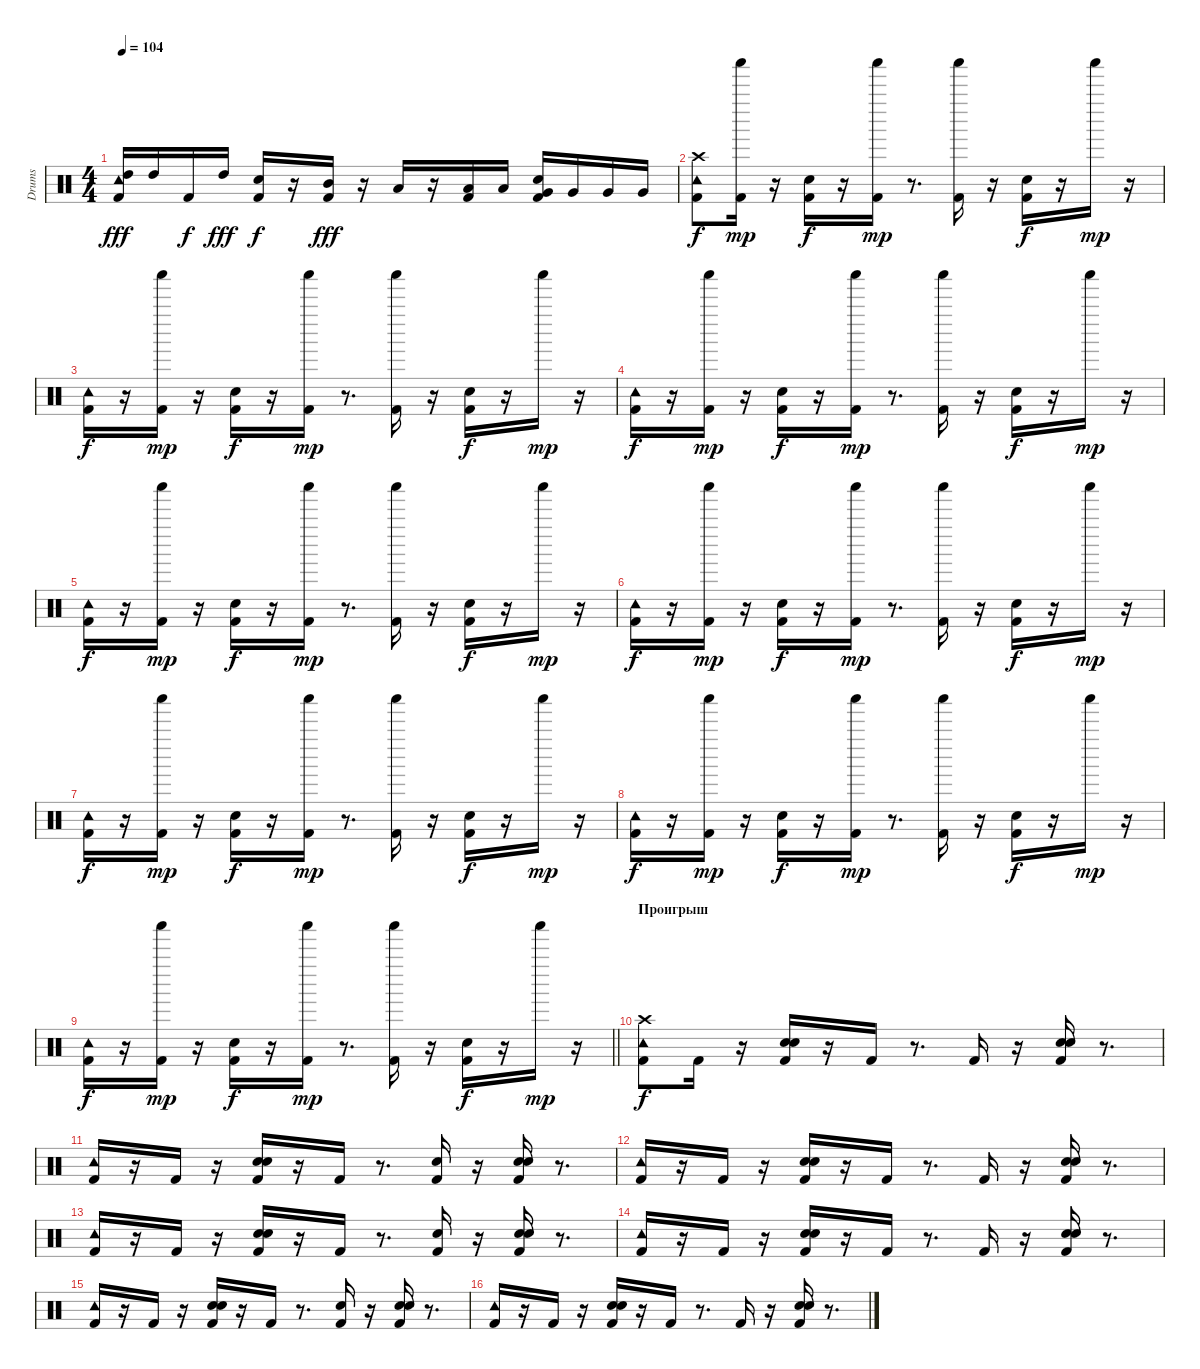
\track ("Drums" "Drums") {instrument percussion}
\staff {score}
\articulation defaults
\ts (4 4)
\tempo 104
\clef neutral
\ks c
("High Tom (hit)" "Tambourine (hit)" "Kick (hit) 2").16{dy fff} "High Tom (hit)".16 "Kick (hit) 2".16{dy f} "High Tom (hit)".16{dy fff} ("Kick (hit) 2" "Snare (hit) 2").16{dy f} r.16 ("Mid Tom (hit)" "Kick (hit) 2").16{dy fff} r.16 "Low Tom (hit)".16 r.16 ("Kick (hit) 2" "Low Tom (hit)").16 "Low Tom (hit)".16 ("Snare (hit) 2" "Kick (hit) 2" "Very Low Tom (hit)").16 "Very Low Tom (hit)".16 "Very Low Tom (hit)".16 "Very Low Tom (hit)".16 |
("Crash high (hit)" "Tambourine (hit)" "Kick (hit) 2").8{dy f} ("Shaker (hit)" "Kick (hit) 2").16{dy mp} r.16 ("Kick (hit) 2" "Snare (hit) 2").16{dy f} r.16 ("Shaker (hit)" "Kick (hit) 2").16{dy mp} r.8{d} ("Shaker (hit)" "Kick (hit) 2").16 r.16 ("Snare (hit) 2" "Kick (hit) 2").16{dy f} r.16 "Shaker (hit)".16{dy mp} r.16 |
("Tambourine (hit)" "Kick (hit) 2").16{dy f} r.16 ("Kick (hit) 2" "Shaker (hit)").16{dy mp} r.16 ("Kick (hit) 2" "Snare (hit) 2").16{dy f} r.16 ("Kick (hit) 2" "Shaker (hit)").16{dy mp} r.8{d} ("Kick (hit) 2" "Shaker (hit)").16 r.16 ("Snare (hit) 2" "Kick (hit) 2").16{dy f} r.16 "Shaker (hit)".16{dy mp} r.16 |
("Tambourine (hit)" "Kick (hit) 2").16{dy f} r.16 ("Kick (hit) 2" "Shaker (hit)").16{dy mp} r.16 ("Kick (hit) 2" "Snare (hit) 2").16{dy f} r.16 ("Kick (hit) 2" "Shaker (hit)").16{dy mp} r.8{d} ("Kick (hit) 2" "Shaker (hit)").16 r.16 ("Snare (hit) 2" "Kick (hit) 2").16{dy f} r.16 "Shaker (hit)".16{dy mp} r.16 |
("Tambourine (hit)" "Kick (hit) 2").16{dy f} r.16 ("Kick (hit) 2" "Shaker (hit)").16{dy mp} r.16 ("Kick (hit) 2" "Snare (hit) 2").16{dy f} r.16 ("Kick (hit) 2" "Shaker (hit)").16{dy mp} r.8{d} ("Kick (hit) 2" "Shaker (hit)").16 r.16 ("Snare (hit) 2" "Kick (hit) 2").16{dy f} r.16 "Shaker (hit)".16{dy mp} r.16 |
("Tambourine (hit)" "Kick (hit) 2").16{dy f} r.16 ("Kick (hit) 2" "Shaker (hit)").16{dy mp} r.16 ("Kick (hit) 2" "Snare (hit) 2").16{dy f} r.16 ("Kick (hit) 2" "Shaker (hit)").16{dy mp} r.8{d} ("Kick (hit) 2" "Shaker (hit)").16 r.16 ("Snare (hit) 2" "Kick (hit) 2").16{dy f} r.16 "Shaker (hit)".16{dy mp} r.16 |
("Tambourine (hit)" "Kick (hit) 2").16{dy f} r.16 ("Kick (hit) 2" "Shaker (hit)").16{dy mp} r.16 ("Kick (hit) 2" "Snare (hit) 2").16{dy f} r.16 ("Kick (hit) 2" "Shaker (hit)").16{dy mp} r.8{d} ("Kick (hit) 2" "Shaker (hit)").16 r.16 ("Snare (hit) 2" "Kick (hit) 2").16{dy f} r.16 "Shaker (hit)".16{dy mp} r.16 |
("Tambourine (hit)" "Kick (hit) 2").16{dy f} r.16 ("Kick (hit) 2" "Shaker (hit)").16{dy mp} r.16 ("Kick (hit) 2" "Snare (hit) 2").16{dy f} r.16 ("Kick (hit) 2" "Shaker (hit)").16{dy mp} r.8{d} ("Kick (hit) 2" "Shaker (hit)").16 r.16 ("Snare (hit) 2" "Kick (hit) 2").16{dy f} r.16 "Shaker (hit)".16{dy mp} r.16 |
\barLineRight lightlight
("Tambourine (hit)" "Kick (hit) 2").16{dy f} r.16 ("Kick (hit) 2" "Shaker (hit)").16{dy mp} r.16 ("Kick (hit) 2" "Snare (hit) 2").16{dy f} r.16 ("Kick (hit) 2" "Shaker (hit)").16{dy mp} r.8{d} ("Shaker (hit)" "Kick (hit) 2").16 r.16 ("Snare (hit) 2" "Kick (hit) 2").16{dy f} r.16 "Shaker (hit)".16{dy mp} r.16 |
\section ("" "Проигрыш")
("Crash high (hit)" "Tambourine (hit)" "Kick (hit) 2").8{dy f} "Kick (hit) 2".16 r.16 ("Hand Clap (hit)" "Kick (hit) 2" "Snare (hit) 2").16 r.16 "Kick (hit) 2".16 r.8{d} "Kick (hit) 2".16 r.16 ("Hand Clap (hit)" "Snare (hit) 2" "Kick (hit) 2").16 r.8{d} |
("Tambourine (hit)" "Kick (hit) 2").16 r.16 "Kick (hit) 2".16 r.16 ("Hand Clap (hit)" "Kick (hit) 2" "Snare (hit) 2").16 r.16 "Kick (hit) 2".16 r.8{d} ("Hand Clap (hit)" "Kick (hit) 2").16 r.16 ("Hand Clap (hit)" "Snare (hit) 2" "Kick (hit) 2").16 r.8{d} |
("Tambourine (hit)" "Kick (hit) 2").16 r.16 "Kick (hit) 2".16 r.16 ("Hand Clap (hit)" "Kick (hit) 2" "Snare (hit) 2").16 r.16 "Kick (hit) 2".16 r.8{d} "Kick (hit) 2".16 r.16 ("Hand Clap (hit)" "Snare (hit) 2" "Kick (hit) 2").16 r.8{d} |
("Tambourine (hit)" "Kick (hit) 2").16 r.16 "Kick (hit) 2".16 r.16 ("Hand Clap (hit)" "Kick (hit) 2" "Snare (hit) 2").16 r.16 "Kick (hit) 2".16 r.8{d} ("Hand Clap (hit)" "Kick (hit) 2").16 r.16 ("Hand Clap (hit)" "Snare (hit) 2" "Kick (hit) 2").16 r.8{d} |
("Tambourine (hit)" "Kick (hit) 2").16 r.16 "Kick (hit) 2".16 r.16 ("Hand Clap (hit)" "Kick (hit) 2" "Snare (hit) 2").16 r.16 "Kick (hit) 2".16 r.8{d} "Kick (hit) 2".16 r.16 ("Hand Clap (hit)" "Snare (hit) 2" "Kick (hit) 2").16 r.8{d} |
("Tambourine (hit)" "Kick (hit) 2").16 r.16 "Kick (hit) 2".16 r.16 ("Hand Clap (hit)" "Kick (hit) 2" "Snare (hit) 2").16 r.16 "Kick (hit) 2".16 r.8{d} ("Hand Clap (hit)" "Kick (hit) 2").16 r.16 ("Hand Clap (hit)" "Snare (hit) 2" "Kick (hit) 2").16 r.8{d} |
("Tambourine (hit)" "Kick (hit) 2").16 r.16 "Kick (hit) 2".16 r.16 ("Hand Clap (hit)" "Kick (hit) 2" "Snare (hit) 2").16 r.16 "Kick (hit) 2".16 r.8{d} "Kick (hit) 2".16 r.16 ("Hand Clap (hit)" "Snare (hit) 2" "Kick (hit) 2").16 r.8{d}
